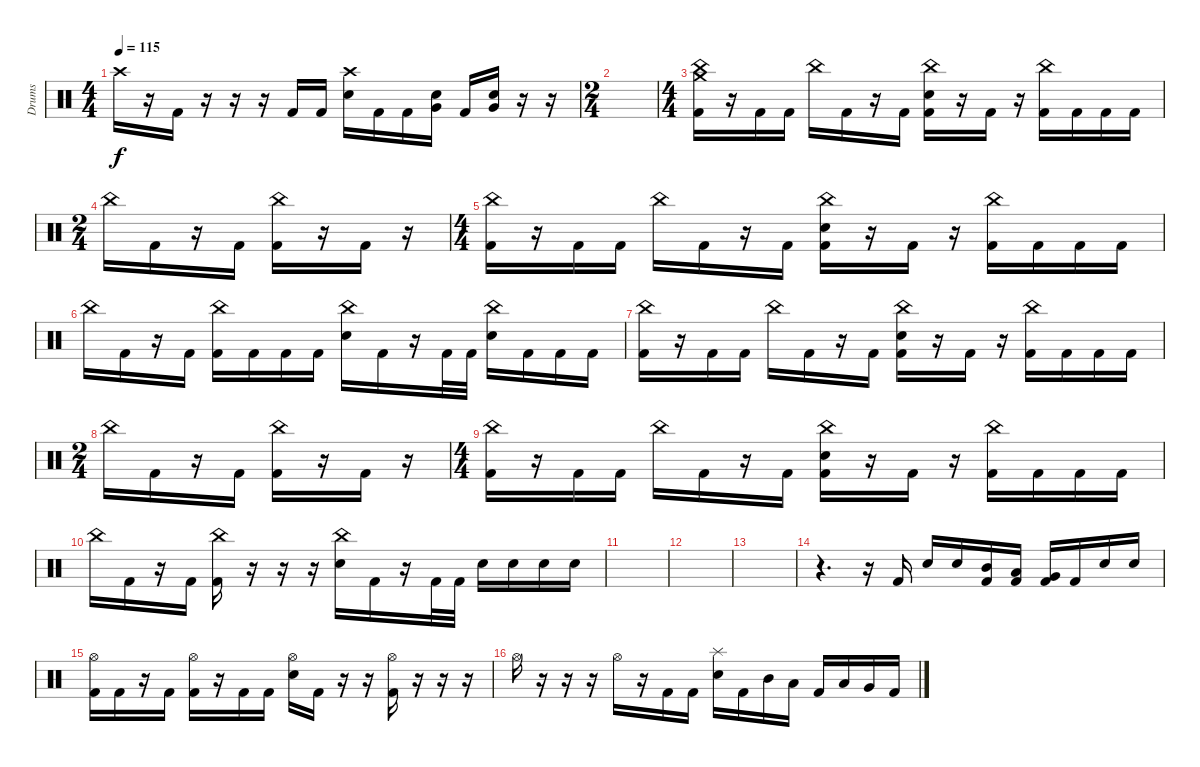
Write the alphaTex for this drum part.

\track ("Drums" "Drums") {instrument percussion}
\staff {score}
\articulation defaults
\ts (4 4)
\tempo 115
\clef neutral
\ks c "Crash high (hit)".16{dy f}
r.16 "Kick (hit) 2".16 r.16 r.16 r.16 "Kick (hit) 2".16 "Kick (hit) 2".16 ("Crash high (hit)" "Electric Snare (hit)").16 "Kick (hit) 2".16 "Kick (hit) 2".16 ("Electric Snare (hit)" "Very Low Tom (hit)").16 "Kick (hit) 2".16 ("Electric Snare (hit)" "Very Low Tom (hit)").16 r.16 r.16 |
\ts (2 4)
|
\ts (4 4)
("Crash medium (hit)" "China (hit)" "Kick (hit) 2").16 r.16 "Kick (hit) 2".16 "Kick (hit) 2".16 "China (hit)".16 "Kick (hit) 2".16 r.16 "Kick (hit) 2".16 ("China (hit)" "Electric Snare (hit)" "Kick (hit) 2").16 r.16 "Kick (hit) 2".16 r.16 ("China (hit)" "Kick (hit) 2").16 "Kick (hit) 2".16 "Kick (hit) 2".16 "Kick (hit) 2".16 |
\ts (2 4)
"China (hit)".16 "Kick (hit) 2".16 r.16 "Kick (hit) 2".16 ("China (hit)" "Kick (hit) 2").16 r.16 "Kick (hit) 2".16 r.16 |
\ts (4 4)
("China (hit)" "Kick (hit) 2").16 r.16 "Kick (hit) 2".16 "Kick (hit) 2".16 "China (hit)".16 "Kick (hit) 2".16 r.16 "Kick (hit) 2".16 ("China (hit)" "Electric Snare (hit)" "Kick (hit) 2").16 r.16 "Kick (hit) 2".16 r.16 ("China (hit)" "Kick (hit) 2").16 "Kick (hit) 2".16 "Kick (hit) 2".16 "Kick (hit) 2".16 |
"China (hit)".16 "Kick (hit) 2".16 r.16 "Kick (hit) 2".16 ("China (hit)" "Kick (hit) 2").16 "Kick (hit) 2".16 "Kick (hit) 2".16 "Kick (hit) 2".16 ("China (hit)" "Electric Snare (hit)").16 "Kick (hit) 2".16 r.16 "Kick (hit) 2".32 "Kick (hit) 2".32 ("China (hit)" "Electric Snare (hit)").16 "Kick (hit) 2".16 "Kick (hit) 2".16 "Kick (hit) 2".16 |
("China (hit)" "Kick (hit) 2").16 r.16 "Kick (hit) 2".16 "Kick (hit) 2".16 "China (hit)".16 "Kick (hit) 2".16 r.16 "Kick (hit) 2".16 ("China (hit)" "Electric Snare (hit)" "Kick (hit) 2").16 r.16 "Kick (hit) 2".16 r.16 ("China (hit)" "Kick (hit) 2").16 "Kick (hit) 2".16 "Kick (hit) 2".16 "Kick (hit) 2".16 |
\ts (2 4)
"China (hit)".16 "Kick (hit) 2".16 r.16 "Kick (hit) 2".16 ("China (hit)" "Kick (hit) 2").16 r.16 "Kick (hit) 2".16 r.16 |
\ts (4 4)
("China (hit)" "Kick (hit) 2").16 r.16 "Kick (hit) 2".16 "Kick (hit) 2".16 "China (hit)".16 "Kick (hit) 2".16 r.16 "Kick (hit) 2".16 ("China (hit)" "Electric Snare (hit)" "Kick (hit) 2").16 r.16 "Kick (hit) 2".16 r.16 ("China (hit)" "Kick (hit) 2").16 "Kick (hit) 2".16 "Kick (hit) 2".16 "Kick (hit) 2".16 |
"China (hit)".16 "Kick (hit) 2".16 r.16 "Kick (hit) 2".16 ("China (hit)" "Kick (hit) 2").16 r.16 r.16 r.16 ("China (hit)" "Electric Snare (hit)").16 "Kick (hit) 2".16 r.16 "Kick (hit) 2".32 "Kick (hit) 2".32 "Electric Snare (hit)".16 "Electric Snare (hit)".16 "Electric Snare (hit)".16 "Electric Snare (hit)".16 |
|
|
|
r.4{d} r.16 "Kick (hit) 2".16 "Electric Snare (hit)".16 "Electric Snare (hit)".16 ("Mid Tom (hit)" "Kick (hit) 2").16 ("Low Tom (hit)" "Kick (hit) 2").16 ("Very Low Tom (hit)" "Kick (hit) 2").16 "Kick (hit) 2".16 "Electric Snare (hit)".16 "Electric Snare (hit)".16 |
("Hi-Hat (open)" "Kick (hit) 2").16 "Kick (hit) 2".16 r.16 "Kick (hit) 2".16 ("Hi-Hat (open)" "Kick (hit) 2").16 r.16 "Kick (hit) 2".16 "Kick (hit) 2".16 ("Hi-Hat (open)" "Electric Snare (hit)").16 "Kick (hit) 2".16 r.16 r.16 ("Hi-Hat (open)" "Kick (hit) 2").16 r.16 r.16 r.16 |
"Hi-Hat (open)".16 r.16 r.16 r.16 "Hi-Hat (open)".16 r.16 "Kick (hit) 2".16 "Kick (hit) 2".16 ("Splash (hit)" "Electric Snare (hit)").16 "Kick (hit) 2".16 "Mid Tom (hit)".16 "Low Tom (hit)".16 "Kick (hit) 2".16 "Low Tom (hit)".16 "Very Low Tom (hit)".16 "Kick (hit) 2".16
